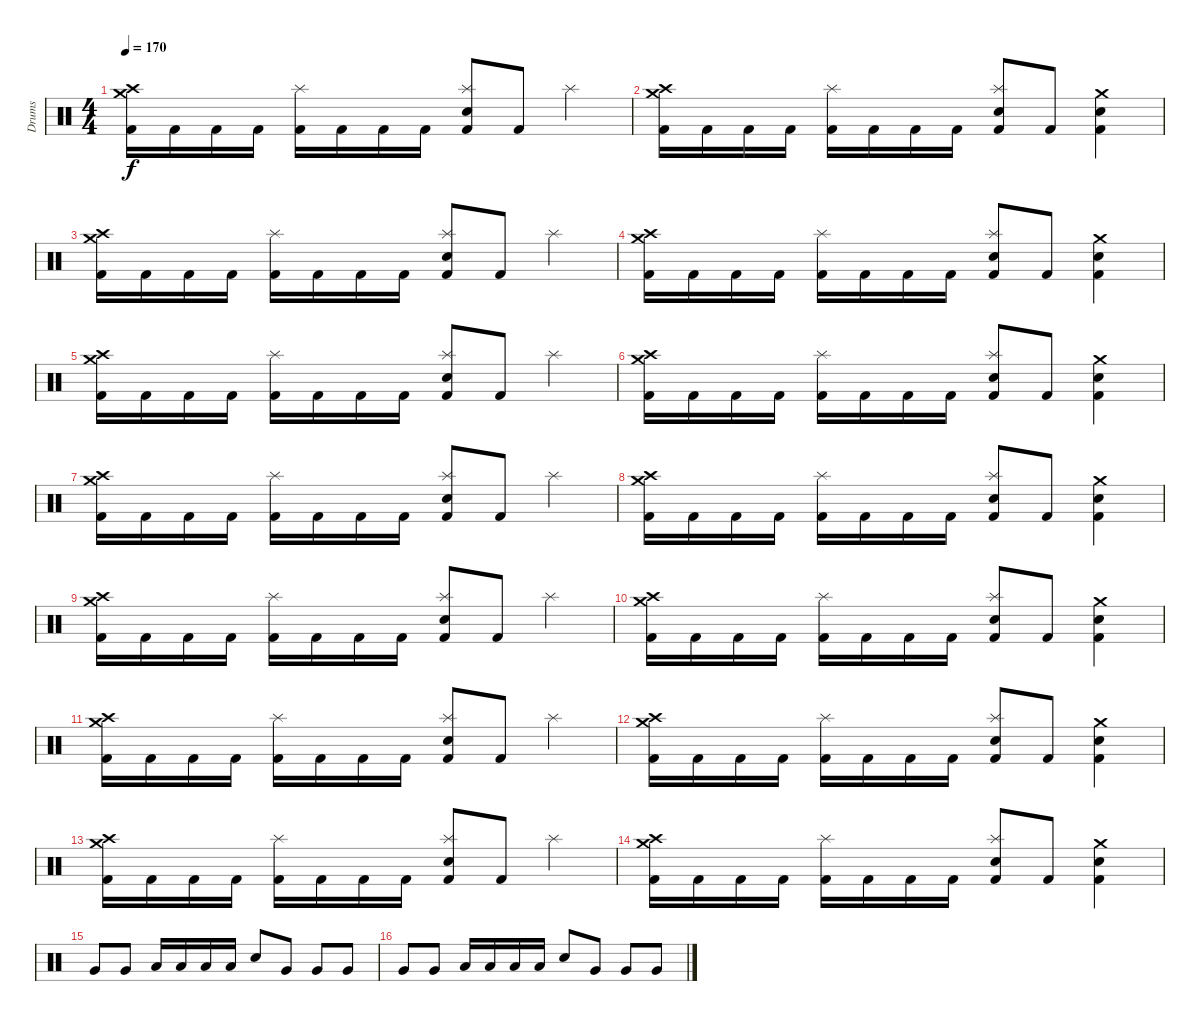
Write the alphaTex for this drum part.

\track ("Drums" "Drums") {instrument percussion}
\staff {score}
\articulation defaults
\ts (4 4)
\tempo 170
\clef neutral
\ks c
("Crash medium (hit)" "Crash high (hit)" "Kick (hit) 2").16{dy f} "Kick (hit) 2".16 "Kick (hit) 2".16 "Kick (hit) 2".16 ("Splash (hit)" "Kick (hit) 2").16 "Kick (hit) 2".16 "Kick (hit) 2".16 "Kick (hit) 2".16 ("Splash (hit)" "Snare (hit) 2" "Kick (hit) 2").8 "Kick (hit) 2".8 "Splash (hit)".4 |
("Crash medium (hit)" "Crash high (hit)" "Kick (hit) 2").16 "Kick (hit) 2".16 "Kick (hit) 2".16 "Kick (hit) 2".16 ("Splash (hit)" "Kick (hit) 2").16 "Kick (hit) 2".16 "Kick (hit) 2".16 "Kick (hit) 2".16 ("Splash (hit)" "Snare (hit) 2" "Kick (hit) 2").8 "Kick (hit) 2".8 ("Crash medium (hit)" "Snare (hit) 2" "Kick (hit) 2").4 |
("Crash medium (hit)" "Crash high (hit)" "Kick (hit) 2").16 "Kick (hit) 2".16 "Kick (hit) 2".16 "Kick (hit) 2".16 ("Splash (hit)" "Kick (hit) 2").16 "Kick (hit) 2".16 "Kick (hit) 2".16 "Kick (hit) 2".16 ("Splash (hit)" "Snare (hit) 2" "Kick (hit) 2").8 "Kick (hit) 2".8 "Splash (hit)".4 |
("Crash medium (hit)" "Crash high (hit)" "Kick (hit) 2").16 "Kick (hit) 2".16 "Kick (hit) 2".16 "Kick (hit) 2".16 ("Splash (hit)" "Kick (hit) 2").16 "Kick (hit) 2".16 "Kick (hit) 2".16 "Kick (hit) 2".16 ("Splash (hit)" "Snare (hit) 2" "Kick (hit) 2").8 "Kick (hit) 2".8 ("Crash medium (hit)" "Snare (hit) 2" "Kick (hit) 2").4 |
("Crash medium (hit)" "Crash high (hit)" "Kick (hit) 2").16 "Kick (hit) 2".16 "Kick (hit) 2".16 "Kick (hit) 2".16 ("Splash (hit)" "Kick (hit) 2").16 "Kick (hit) 2".16 "Kick (hit) 2".16 "Kick (hit) 2".16 ("Splash (hit)" "Snare (hit) 2" "Kick (hit) 2").8 "Kick (hit) 2".8 "Splash (hit)".4 |
("Crash medium (hit)" "Crash high (hit)" "Kick (hit) 2").16 "Kick (hit) 2".16 "Kick (hit) 2".16 "Kick (hit) 2".16 ("Splash (hit)" "Kick (hit) 2").16 "Kick (hit) 2".16 "Kick (hit) 2".16 "Kick (hit) 2".16 ("Splash (hit)" "Snare (hit) 2" "Kick (hit) 2").8 "Kick (hit) 2".8 ("Crash medium (hit)" "Snare (hit) 2" "Kick (hit) 2").4 |
("Crash medium (hit)" "Crash high (hit)" "Kick (hit) 2").16 "Kick (hit) 2".16 "Kick (hit) 2".16 "Kick (hit) 2".16 ("Splash (hit)" "Kick (hit) 2").16 "Kick (hit) 2".16 "Kick (hit) 2".16 "Kick (hit) 2".16 ("Splash (hit)" "Snare (hit) 2" "Kick (hit) 2").8 "Kick (hit) 2".8 "Splash (hit)".4 |
("Crash medium (hit)" "Crash high (hit)" "Kick (hit) 2").16 "Kick (hit) 2".16 "Kick (hit) 2".16 "Kick (hit) 2".16 ("Splash (hit)" "Kick (hit) 2").16 "Kick (hit) 2".16 "Kick (hit) 2".16 "Kick (hit) 2".16 ("Splash (hit)" "Snare (hit) 2" "Kick (hit) 2").8 "Kick (hit) 2".8 ("Crash medium (hit)" "Snare (hit) 2" "Kick (hit) 2").4 |
("Crash medium (hit)" "Crash high (hit)" "Kick (hit) 2").16 "Kick (hit) 2".16 "Kick (hit) 2".16 "Kick (hit) 2".16 ("Splash (hit)" "Kick (hit) 2").16 "Kick (hit) 2".16 "Kick (hit) 2".16 "Kick (hit) 2".16 ("Splash (hit)" "Snare (hit) 2" "Kick (hit) 2").8 "Kick (hit) 2".8 "Splash (hit)".4 |
("Crash medium (hit)" "Crash high (hit)" "Kick (hit) 2").16 "Kick (hit) 2".16 "Kick (hit) 2".16 "Kick (hit) 2".16 ("Splash (hit)" "Kick (hit) 2").16 "Kick (hit) 2".16 "Kick (hit) 2".16 "Kick (hit) 2".16 ("Splash (hit)" "Snare (hit) 2" "Kick (hit) 2").8 "Kick (hit) 2".8 ("Crash medium (hit)" "Snare (hit) 2" "Kick (hit) 2").4 |
("Crash medium (hit)" "Crash high (hit)" "Kick (hit) 2").16 "Kick (hit) 2".16 "Kick (hit) 2".16 "Kick (hit) 2".16 ("Splash (hit)" "Kick (hit) 2").16 "Kick (hit) 2".16 "Kick (hit) 2".16 "Kick (hit) 2".16 ("Splash (hit)" "Snare (hit) 2" "Kick (hit) 2").8 "Kick (hit) 2".8 "Splash (hit)".4 |
("Crash medium (hit)" "Crash high (hit)" "Kick (hit) 2").16 "Kick (hit) 2".16 "Kick (hit) 2".16 "Kick (hit) 2".16 ("Splash (hit)" "Kick (hit) 2").16 "Kick (hit) 2".16 "Kick (hit) 2".16 "Kick (hit) 2".16 ("Splash (hit)" "Snare (hit) 2" "Kick (hit) 2").8 "Kick (hit) 2".8 ("Crash medium (hit)" "Snare (hit) 2" "Kick (hit) 2").4 |
("Crash medium (hit)" "Crash high (hit)" "Kick (hit) 2").16 "Kick (hit) 2".16 "Kick (hit) 2".16 "Kick (hit) 2".16 ("Splash (hit)" "Kick (hit) 2").16 "Kick (hit) 2".16 "Kick (hit) 2".16 "Kick (hit) 2".16 ("Splash (hit)" "Snare (hit) 2" "Kick (hit) 2").8 "Kick (hit) 2".8 "Splash (hit)".4 |
("Crash medium (hit)" "Crash high (hit)" "Kick (hit) 2").16 "Kick (hit) 2".16 "Kick (hit) 2".16 "Kick (hit) 2".16 ("Splash (hit)" "Kick (hit) 2").16 "Kick (hit) 2".16 "Kick (hit) 2".16 "Kick (hit) 2".16 ("Splash (hit)" "Snare (hit) 2" "Kick (hit) 2").8 "Kick (hit) 2".8 ("Crash medium (hit)" "Snare (hit) 2" "Kick (hit) 2").4 |
"Very Low Tom (hit)".8 "Very Low Tom (hit)".8 "Low Tom (hit)".16 "Low Tom (hit)".16 "Low Tom (hit)".16 "Low Tom (hit)".16 "Snare (hit) 2".8 "Very Low Tom (hit)".8 "Very Low Tom (hit)".8 "Very Low Tom (hit)".8 |
"Very Low Tom (hit)".8 "Very Low Tom (hit)".8 "Low Tom (hit)".16 "Low Tom (hit)".16 "Low Tom (hit)".16 "Low Tom (hit)".16 "Snare (hit) 2".8 "Very Low Tom (hit)".8 "Very Low Tom (hit)".8 "Very Low Tom (hit)".8
